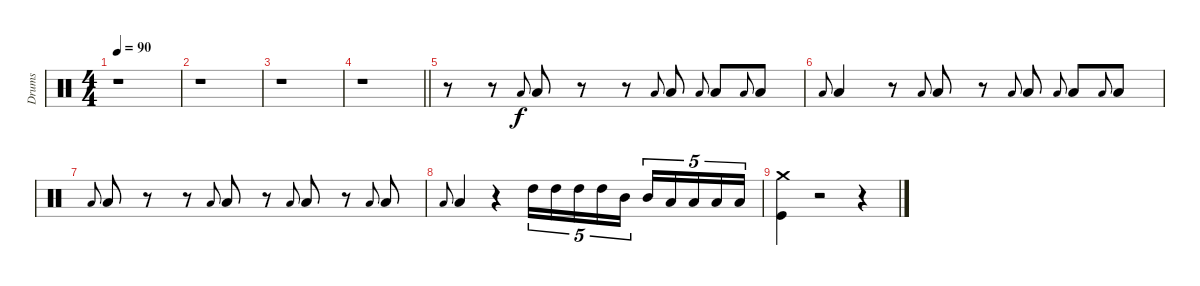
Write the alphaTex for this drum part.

\track ("Drums" "Drums") {instrument percussion}
\staff {score}
\articulation defaults
\ts (4 4)
\tempo 90
\clef neutral
\ks c
r.1{dy f} |
r.1 |
r.1 |
\barLineRight lightlight
r.1 |
r.8 r.8 "Low Tom (hit)".8{gr onbeat} "Low Tom (hit)".8 r.8 r.8 "Low Tom (hit)".8{gr onbeat} "Low Tom (hit)".8 "Low Tom (hit)".8{gr onbeat} "Low Tom (hit)".8 "Low Tom (hit)".8{gr onbeat} "Low Tom (hit)".8 |
"Low Tom (hit)".8{gr onbeat} "Low Tom (hit)".4 r.8 "Low Tom (hit)".8{gr onbeat} "Low Tom (hit)".8 r.8 "Low Tom (hit)".8{gr onbeat} "Low Tom (hit)".8 "Low Tom (hit)".8{gr onbeat} "Low Tom (hit)".8 "Low Tom (hit)".8{gr onbeat} "Low Tom (hit)".8 |
"Low Tom (hit)".8{gr onbeat} "Low Tom (hit)".8 r.8 r.8 "Low Tom (hit)".8{gr onbeat} "Low Tom (hit)".8 r.8 "Low Tom (hit)".8{gr onbeat} "Low Tom (hit)".8 r.8 "Low Tom (hit)".8{gr onbeat} "Low Tom (hit)".8 |
"Low Tom (hit)".8{gr onbeat} "Low Tom (hit)".4 r.4 "High Tom (hit)".16{tu (5 4) volume 6} "High Tom (hit)".16{tu (5 4) volume 13} "High Tom (hit)".16{tu (5 4)} "High Tom (hit)".16{tu (5 4)} "Mid Tom (hit)".16{tu (5 4)} "Mid Tom (hit)".16{tu (5 4)} "Low Tom (hit)".16{tu (5 4)} "Low Tom (hit)".16{tu (5 4)} "Low Tom (hit)".16{tu (5 4)} "Low Tom (hit)".16{tu (5 4)} |
("Crash medium (hit)" "Kick (hit)").4 r.2 r.4
